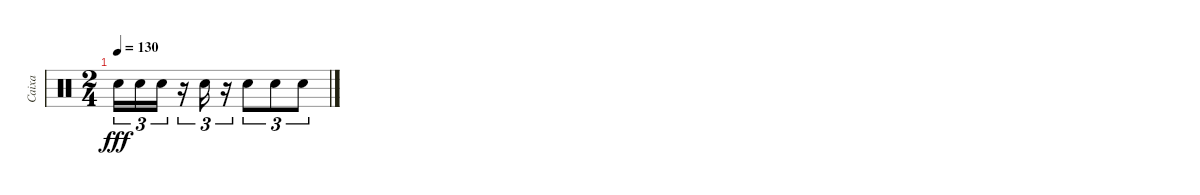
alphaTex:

\track ("Caixa" "Caixa") {instrument percussion}
\staff {score}
\articulation defaults
\ts (2 4)
\tempo 130
\clef neutral
\ks c "Electric Snare (hit)".16{tu (3 2) dy fff} "Electric Snare (hit)".16{tu (3 2)} "Electric Snare (hit)".16{tu (3 2)}
r.16{tu (3 2)} "Electric Snare (hit)".16{tu (3 2)} r.16{tu (3 2)} "Electric Snare (hit)".8{tu (3 2)} "Electric Snare (hit)".8{tu (3 2)} "Electric Snare (hit)".8{tu (3 2)}
